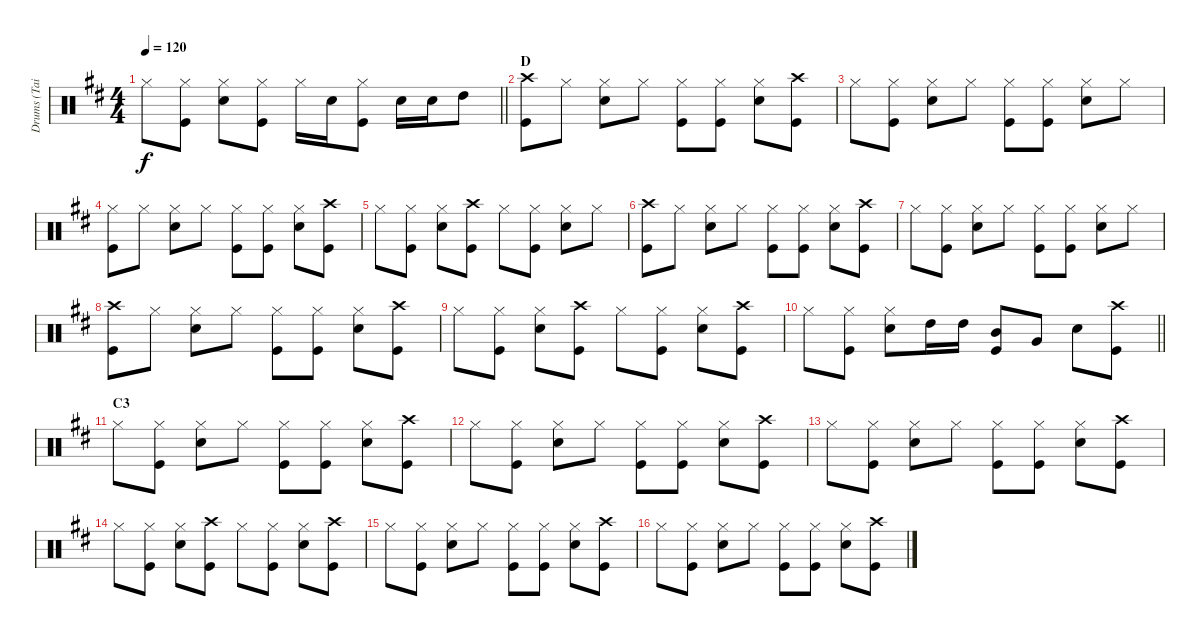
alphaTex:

\track ("Drums (Tainaka Ritsu)" "Drums (Tai") {instrument percussion}
\staff {score}
\articulation defaults
\ts (4 4)
\tempo 120
\clef neutral
\barLineRight lightlight
\ks d "Hi-Hat (closed)".8{dy f}
("Hi-Hat (closed)" "Kick (hit)").8 ("Hi-Hat (closed)" "Snare (hit) 2").8 ("Hi-Hat (closed)" "Kick (hit)").8 "Hi-Hat (closed)".16 "Snare (hit) 2".16 ("Hi-Hat (closed)" "Kick (hit)").8 "Snare (hit) 2".16 "Snare (hit) 2".16 "High Tom (hit)".8 |
\section ("" "D")
("Crash high (hit)" "Kick (hit)").8 "Hi-Hat (closed)".8 ("Hi-Hat (closed)" "Snare (hit) 2").8 "Hi-Hat (closed)".8 ("Hi-Hat (closed)" "Kick (hit)").8 ("Hi-Hat (closed)" "Kick (hit)").8 ("Hi-Hat (closed)" "Snare (hit) 2").8 ("Crash high (hit)" "Kick (hit)").8 |
"Hi-Hat (closed)".8 ("Hi-Hat (closed)" "Kick (hit)").8 ("Hi-Hat (closed)" "Snare (hit) 2").8 "Hi-Hat (closed)".8 ("Hi-Hat (closed)" "Kick (hit)").8 ("Hi-Hat (closed)" "Kick (hit)").8 ("Hi-Hat (closed)" "Snare (hit) 2").8 "Hi-Hat (closed)".8 |
("Hi-Hat (closed)" "Kick (hit)").8 "Hi-Hat (closed)".8 ("Hi-Hat (closed)" "Snare (hit) 2").8 "Hi-Hat (closed)".8 ("Hi-Hat (closed)" "Kick (hit)").8 ("Hi-Hat (closed)" "Kick (hit)").8 ("Hi-Hat (closed)" "Snare (hit) 2").8 ("Crash high (hit)" "Kick (hit)").8 |
"Hi-Hat (closed)".8 ("Hi-Hat (closed)" "Kick (hit)").8 ("Hi-Hat (closed)" "Snare (hit) 2").8 ("Crash high (hit)" "Kick (hit)").8 "Hi-Hat (closed)".8 ("Hi-Hat (closed)" "Kick (hit)").8 ("Hi-Hat (closed)" "Snare (hit) 2").8 "Hi-Hat (closed)".8 |
("Crash high (hit)" "Kick (hit)").8 "Hi-Hat (closed)".8 ("Hi-Hat (closed)" "Snare (hit) 2").8 "Hi-Hat (closed)".8 ("Hi-Hat (closed)" "Kick (hit)").8 ("Hi-Hat (closed)" "Kick (hit)").8 ("Hi-Hat (closed)" "Snare (hit) 2").8 ("Crash high (hit)" "Kick (hit)").8 |
"Hi-Hat (closed)".8 ("Hi-Hat (closed)" "Kick (hit)").8 ("Hi-Hat (closed)" "Snare (hit) 2").8 "Hi-Hat (closed)".8 ("Hi-Hat (closed)" "Kick (hit)").8 ("Hi-Hat (closed)" "Kick (hit)").8 ("Hi-Hat (closed)" "Snare (hit) 2").8 "Hi-Hat (closed)".8 |
("Crash high (hit)" "Kick (hit)").8 "Hi-Hat (closed)".8 ("Hi-Hat (closed)" "Snare (hit) 2").8 "Hi-Hat (closed)".8 ("Hi-Hat (closed)" "Kick (hit)").8 ("Hi-Hat (closed)" "Kick (hit)").8 ("Hi-Hat (closed)" "Snare (hit) 2").8 ("Crash high (hit)" "Kick (hit)").8 |
"Hi-Hat (closed)".8 ("Hi-Hat (closed)" "Kick (hit)").8 ("Hi-Hat (closed)" "Snare (hit) 2").8 ("Crash high (hit)" "Kick (hit)").8 "Hi-Hat (closed)".8 ("Hi-Hat (closed)" "Kick (hit)").8 ("Hi-Hat (closed)" "Snare (hit) 2").8 ("Crash high (hit)" "Kick (hit)").8 |
\barLineRight lightlight "Hi-Hat (closed)".8
("Hi-Hat (closed)" "Kick (hit)").8 ("Hi-Hat (closed)" "Snare (hit) 2").8 "High Tom (hit)".16 "High Tom (hit)".16 ("Mid Tom (hit)" "Kick (hit)").8 "Very Low Tom (hit)".8 "Snare (hit) 2".8 ("Crash high (hit)" "Kick (hit)").8 |
\section ("" "C3")
"Hi-Hat (closed)".8 ("Hi-Hat (closed)" "Kick (hit)").8 ("Hi-Hat (closed)" "Snare (hit) 2").8 "Hi-Hat (closed)".8 ("Hi-Hat (closed)" "Kick (hit)").8 ("Hi-Hat (closed)" "Kick (hit)").8 ("Hi-Hat (closed)" "Snare (hit) 2").8 ("Crash high (hit)" "Kick (hit)").8 |
"Hi-Hat (closed)".8 ("Hi-Hat (closed)" "Kick (hit)").8 ("Hi-Hat (closed)" "Snare (hit) 2").8 "Hi-Hat (closed)".8 ("Hi-Hat (closed)" "Kick (hit)").8 ("Hi-Hat (closed)" "Kick (hit)").8 ("Hi-Hat (closed)" "Snare (hit) 2").8 ("Crash high (hit)" "Kick (hit)").8 |
"Hi-Hat (closed)".8 ("Hi-Hat (closed)" "Kick (hit)").8 ("Hi-Hat (closed)" "Snare (hit) 2").8 "Hi-Hat (closed)".8 ("Hi-Hat (closed)" "Kick (hit)").8 ("Hi-Hat (closed)" "Kick (hit)").8 ("Hi-Hat (closed)" "Snare (hit) 2").8 ("Crash high (hit)" "Kick (hit)").8 |
"Hi-Hat (closed)".8 ("Hi-Hat (closed)" "Kick (hit)").8 ("Hi-Hat (closed)" "Snare (hit) 2").8 ("Crash high (hit)" "Kick (hit)").8 "Hi-Hat (closed)".8 ("Hi-Hat (closed)" "Kick (hit)").8 ("Hi-Hat (closed)" "Snare (hit) 2").8 ("Crash high (hit)" "Kick (hit)").8 |
"Hi-Hat (closed)".8 ("Hi-Hat (closed)" "Kick (hit)").8 ("Hi-Hat (closed)" "Snare (hit) 2").8 "Hi-Hat (closed)".8 ("Hi-Hat (closed)" "Kick (hit)").8 ("Hi-Hat (closed)" "Kick (hit)").8 ("Hi-Hat (closed)" "Snare (hit) 2").8 ("Crash high (hit)" "Kick (hit)").8 |
"Hi-Hat (closed)".8 ("Hi-Hat (closed)" "Kick (hit)").8 ("Hi-Hat (closed)" "Snare (hit) 2").8 "Hi-Hat (closed)".8 ("Hi-Hat (closed)" "Kick (hit)").8 ("Hi-Hat (closed)" "Kick (hit)").8 ("Hi-Hat (closed)" "Snare (hit) 2").8 ("Crash high (hit)" "Kick (hit)").8
